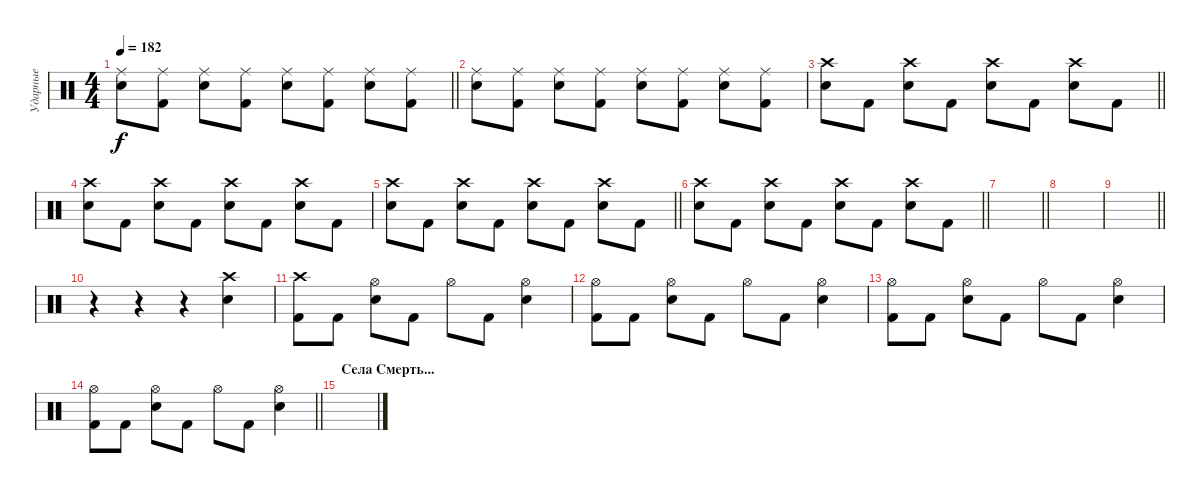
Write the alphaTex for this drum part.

\track ("Ударные" "Ударные") {instrument percussion}
\staff {score}
\articulation defaults
\ts (4 4)
\tempo 182
\clef neutral
\barLineRight lightlight
\ks c
("Ride (middle)" "Snare (hit) 2").8{dy f} ("Ride (middle)" "Kick (hit) 2").8 ("Ride (middle)" "Snare (hit) 2").8 ("Ride (middle)" "Kick (hit) 2").8 ("Ride (middle)" "Snare (hit) 2").8 ("Ride (middle)" "Kick (hit) 2").8 ("Ride (middle)" "Snare (hit) 2").8 ("Ride (middle)" "Kick (hit) 2").8 |
("Ride (middle)" "Snare (hit) 2").8 ("Ride (middle)" "Kick (hit) 2").8 ("Ride (middle)" "Snare (hit) 2").8 ("Ride (middle)" "Kick (hit) 2").8 ("Ride (middle)" "Snare (hit) 2").8 ("Ride (middle)" "Kick (hit) 2").8 ("Ride (middle)" "Snare (hit) 2").8 ("Ride (middle)" "Kick (hit) 2").8 |
\barLineRight lightlight
("Crash high (hit)" "Snare (hit) 2").8 "Kick (hit) 2".8 ("Crash high (hit)" "Snare (hit) 2").8 "Kick (hit) 2".8 ("Crash high (hit)" "Snare (hit) 2").8 "Kick (hit) 2".8 ("Crash high (hit)" "Snare (hit) 2").8 "Kick (hit) 2".8 |
("Crash high (hit)" "Snare (hit) 2").8 "Kick (hit) 2".8 ("Crash high (hit)" "Snare (hit) 2").8 "Kick (hit) 2".8 ("Crash high (hit)" "Snare (hit) 2").8 "Kick (hit) 2".8 ("Crash high (hit)" "Snare (hit) 2").8 "Kick (hit) 2".8 |
\barLineRight lightlight
("Crash high (hit)" "Snare (hit) 2").8 "Kick (hit) 2".8 ("Crash high (hit)" "Snare (hit) 2").8 "Kick (hit) 2".8 ("Crash high (hit)" "Snare (hit) 2").8 "Kick (hit) 2".8 ("Crash high (hit)" "Snare (hit) 2").8 "Kick (hit) 2".8 |
\barLineRight lightlight
("Crash high (hit)" "Snare (hit) 2").8 "Kick (hit) 2".8 ("Crash high (hit)" "Snare (hit) 2").8 "Kick (hit) 2".8 ("Crash high (hit)" "Snare (hit) 2").8 "Kick (hit) 2".8 ("Crash high (hit)" "Snare (hit) 2").8 "Kick (hit) 2".8 |
\section ("" "")
\barLineRight lightlight
|
|
\barLineRight lightlight
|
r.4 r.4 r.4 ("Crash high (hit)" "Snare (hit) 2").4 |
("Crash high (hit)" "Kick (hit) 2").8 "Kick (hit) 2".8 ("Hi-Hat (open)" "Snare (hit) 2").8 "Kick (hit) 2".8 "Hi-Hat (open)".8 "Kick (hit) 2".8 ("Hi-Hat (open)" "Snare (hit) 2").4 |
("Hi-Hat (open)" "Kick (hit) 2").8 "Kick (hit) 2".8 ("Hi-Hat (open)" "Snare (hit) 2").8 "Kick (hit) 2".8 "Hi-Hat (open)".8 "Kick (hit) 2".8 ("Hi-Hat (open)" "Snare (hit) 2").4 |
("Hi-Hat (open)" "Kick (hit) 2").8 "Kick (hit) 2".8 ("Hi-Hat (open)" "Snare (hit) 2").8 "Kick (hit) 2".8 "Hi-Hat (open)".8 "Kick (hit) 2".8 ("Hi-Hat (open)" "Snare (hit) 2").4 |
\barLineRight lightlight
("Hi-Hat (open)" "Kick (hit) 2").8 "Kick (hit) 2".8 ("Hi-Hat (open)" "Snare (hit) 2").8 "Kick (hit) 2".8 "Hi-Hat (open)".8 "Kick (hit) 2".8 ("Hi-Hat (open)" "Snare (hit) 2").4 |
\section ("" "Села Смерть...")
